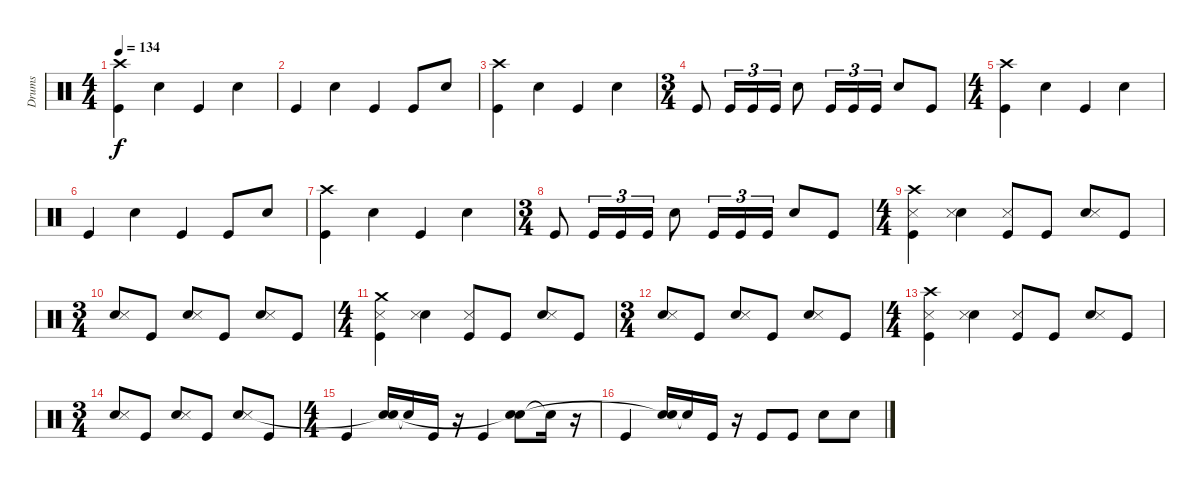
\track ("Drums" "Drums") {instrument percussion}
\staff {score}
\articulation defaults
\ts (4 4)
\tempo 134
\clef neutral
\ks c
("Crash high (hit)" "Kick (hit)").4{dy f} "Electric Snare (hit)".4 "Kick (hit)".4 "Electric Snare (hit)".4 |
"Kick (hit)".4 "Electric Snare (hit)".4 "Kick (hit)".4 "Kick (hit)".8 "Electric Snare (hit)".8 |
("Crash high (hit)" "Kick (hit)").4 "Electric Snare (hit)".4 "Kick (hit)".4 "Electric Snare (hit)".4 |
\ts (3 4)
"Kick (hit)".8 "Kick (hit)".16{tu (3 2)} "Kick (hit)".16{tu (3 2)} "Kick (hit)".16{tu (3 2)} "Electric Snare (hit)".8 "Kick (hit)".16{tu (3 2)} "Kick (hit)".16{tu (3 2)} "Kick (hit)".16{tu (3 2)} "Electric Snare (hit)".8 "Kick (hit)".8 |
\ts (4 4)
("Crash high (hit)" "Kick (hit)").4 "Electric Snare (hit)".4 "Kick (hit)".4 "Electric Snare (hit)".4 |
"Kick (hit)".4 "Electric Snare (hit)".4 "Kick (hit)".4 "Kick (hit)".8 "Electric Snare (hit)".8 |
("Crash high (hit)" "Kick (hit)").4 "Electric Snare (hit)".4 "Kick (hit)".4 "Electric Snare (hit)".4 |
\ts (3 4)
"Kick (hit)".8 "Kick (hit)".16{tu (3 2)} "Kick (hit)".16{tu (3 2)} "Kick (hit)".16{tu (3 2)} "Electric Snare (hit)".8 "Kick (hit)".16{tu (3 2)} "Kick (hit)".16{tu (3 2)} "Kick (hit)".16{tu (3 2)} "Electric Snare (hit)".8 "Kick (hit)".8 |
\ts (4 4)
("Snare (side stick) 3" "Crash high (hit)" "Kick (hit)").4 ("Electric Snare (hit)" "Snare (side stick) 3").4 ("Snare (side stick) 3" "Kick (hit)").8 "Kick (hit)".8 ("Electric Snare (hit)" "Snare (side stick) 3").8 "Kick (hit)".8 |
\ts (3 4)
("Electric Snare (hit)" "Snare (side stick) 3").8 "Kick (hit)".8 ("Electric Snare (hit)" "Snare (side stick) 3").8 "Kick (hit)".8 ("Electric Snare (hit)" "Snare (side stick) 3").8 "Kick (hit)".8 |
\ts (4 4)
("Snare (side stick) 3" "Crash medium (hit)" "Kick (hit)").4 ("Electric Snare (hit)" "Snare (side stick) 3").4 ("Snare (side stick) 3" "Kick (hit)").8 "Kick (hit)".8 ("Electric Snare (hit)" "Snare (side stick) 3").8 "Kick (hit)".8 |
\ts (3 4)
("Electric Snare (hit)" "Snare (side stick) 3").8 "Kick (hit)".8 ("Electric Snare (hit)" "Snare (side stick) 3").8 "Kick (hit)".8 ("Electric Snare (hit)" "Snare (side stick) 3").8 "Kick (hit)".8 |
\ts (4 4)
("Snare (side stick) 3" "Crash high (hit)" "Kick (hit)").4 ("Electric Snare (hit)" "Snare (side stick) 3").4 ("Snare (side stick) 3" "Kick (hit)").8 "Kick (hit)".8 ("Electric Snare (hit)" "Snare (side stick) 3").8 "Kick (hit)".8 |
\ts (3 4)
("Electric Snare (hit)" "Snare (side stick) 3").8 "Kick (hit)".8 ("Electric Snare (hit)" "Snare (side stick) 3").8 "Kick (hit)".8 ("Electric Snare (hit)" "Snare (side stick) 3").8 "Kick (hit)".8 |
\ts (4 4)
"Kick (hit)".4 ("Electric Snare (hit)" "Snare (hit)"{t}).16 "Snare (hit)"{t}.16 "Kick (hit)".16 r.16 "Kick (hit)".4 ("Electric Snare (hit)" "Snare (hit)"{t}).8 "Snare (hit)"{t}.16 r.16 |
"Kick (hit)".4 ("Electric Snare (hit)" "Snare (hit)"{t}).16 "Snare (hit)"{t}.16 "Kick (hit)".16 r.16 "Kick (hit)".8 "Kick (hit)".8 "Electric Snare (hit)".8 "Electric Snare (hit)".8
